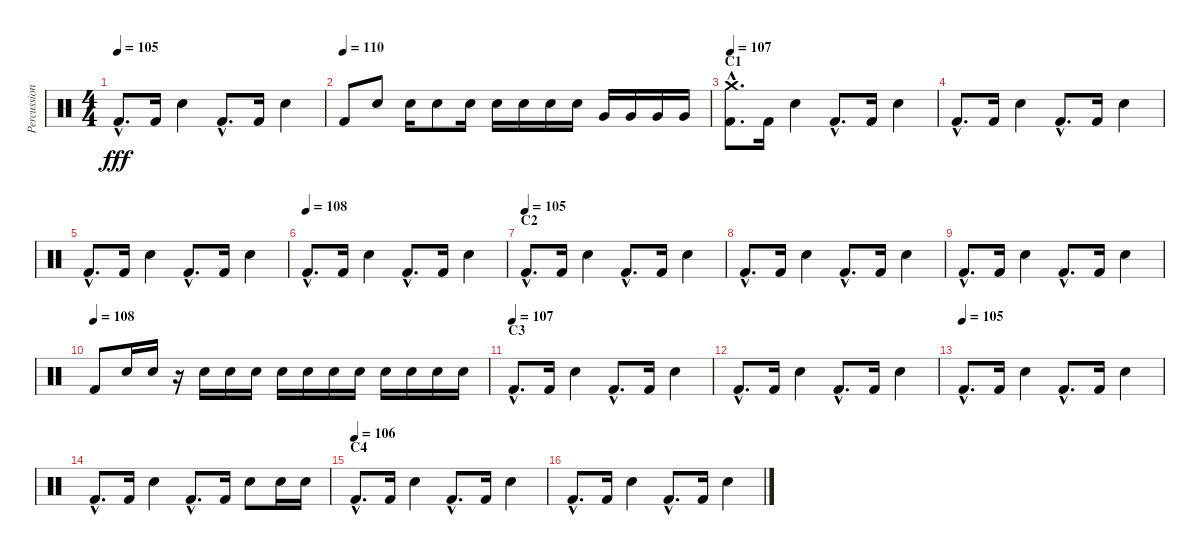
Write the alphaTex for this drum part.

\track ("Percussion" "Percussion") {instrument percussion}
\staff {score}
\articulation defaults
\ts (4 4)
\tempo 105
\clef neutral
\ks c "Kick (hit) 2"{hac}.8{d dy fff} "Kick (hit) 2".16 "Electric Snare (hit)".4 "Kick (hit) 2"{hac}.8{d} "Kick (hit) 2".16 "Electric Snare (hit)".4
|
\tempo (110)
"Kick (hit) 2".8 "Electric Snare (hit)".8 "Electric Snare (hit)".16 "Electric Snare (hit)".8 "Electric Snare (hit)".16 "Electric Snare (hit)".16 "Electric Snare (hit)".16 "Electric Snare (hit)".16 "Electric Snare (hit)".16 "Very Low Tom (hit)".16 "Very Low Tom (hit)".16 "Very Low Tom (hit)".16 "Very Low Tom (hit)".16 |
\section ("" "C1")
\tempo 107
("Kick (hit) 2"{hac} "Crash medium (hit)"{hac}).8{d} "Kick (hit) 2".16 "Electric Snare (hit)".4 "Kick (hit) 2"{hac}.8{d} "Kick (hit) 2".16 "Electric Snare (hit)".4 |
"Kick (hit) 2"{hac}.8{d} "Kick (hit) 2".16 "Electric Snare (hit)".4 "Kick (hit) 2"{hac}.8{d} "Kick (hit) 2".16 "Electric Snare (hit)".4 |
"Kick (hit) 2"{hac}.8{d} "Kick (hit) 2".16 "Electric Snare (hit)".4 "Kick (hit) 2"{hac}.8{d} "Kick (hit) 2".16 "Electric Snare (hit)".4 |
\tempo (108)
"Kick (hit) 2"{hac}.8{d} "Kick (hit) 2".16 "Electric Snare (hit)".4 "Kick (hit) 2"{hac}.8{d} "Kick (hit) 2".16 "Electric Snare (hit)".4 |
\section ("" "C2")
\tempo (105)
"Kick (hit) 2"{hac}.8{d} "Kick (hit) 2".16 "Electric Snare (hit)".4 "Kick (hit) 2"{hac}.8{d} "Kick (hit) 2".16 "Electric Snare (hit)".4 |
"Kick (hit) 2"{hac}.8{d} "Kick (hit) 2".16 "Electric Snare (hit)".4 "Kick (hit) 2"{hac}.8{d} "Kick (hit) 2".16 "Electric Snare (hit)".4 |
"Kick (hit) 2"{hac}.8{d} "Kick (hit) 2".16 "Electric Snare (hit)".4 "Kick (hit) 2"{hac}.8{d} "Kick (hit) 2".16 "Electric Snare (hit)".4 |
\tempo (108)
"Kick (hit) 2".8 "Electric Snare (hit)".16 "Electric Snare (hit)".16 r.16 "Electric Snare (hit)".16 "Electric Snare (hit)".16 "Electric Snare (hit)".16 "Electric Snare (hit)".16 "Electric Snare (hit)".16 "Electric Snare (hit)".16 "Electric Snare (hit)".16 "Electric Snare (hit)".16 "Electric Snare (hit)".16 "Electric Snare (hit)".16 "Electric Snare (hit)".16 |
\section ("" "C3")
\tempo (107)
"Kick (hit) 2"{hac}.8{d} "Kick (hit) 2".16 "Electric Snare (hit)".4 "Kick (hit) 2"{hac}.8{d} "Kick (hit) 2".16 "Electric Snare (hit)".4 |
"Kick (hit) 2"{hac}.8{d} "Kick (hit) 2".16 "Electric Snare (hit)".4 "Kick (hit) 2"{hac}.8{d} "Kick (hit) 2".16 "Electric Snare (hit)".4 |
\tempo (105)
"Kick (hit) 2"{hac}.8{d} "Kick (hit) 2".16 "Electric Snare (hit)".4 "Kick (hit) 2"{hac}.8{d} "Kick (hit) 2".16 "Electric Snare (hit)".4 |
"Kick (hit) 2"{hac}.8{d} "Kick (hit) 2".16 "Electric Snare (hit)".4 "Kick (hit) 2"{hac}.8{d} "Kick (hit) 2".16 "Electric Snare (hit)".8 "Electric Snare (hit)".16 "Electric Snare (hit)".16 |
\section ("" "C4")
\tempo (106)
"Kick (hit) 2"{hac}.8{d} "Kick (hit) 2".16 "Electric Snare (hit)".4 "Kick (hit) 2"{hac}.8{d} "Kick (hit) 2".16 "Electric Snare (hit)".4 |
"Kick (hit) 2"{hac}.8{d} "Kick (hit) 2".16 "Electric Snare (hit)".4 "Kick (hit) 2"{hac}.8{d} "Kick (hit) 2".16 "Electric Snare (hit)".4
